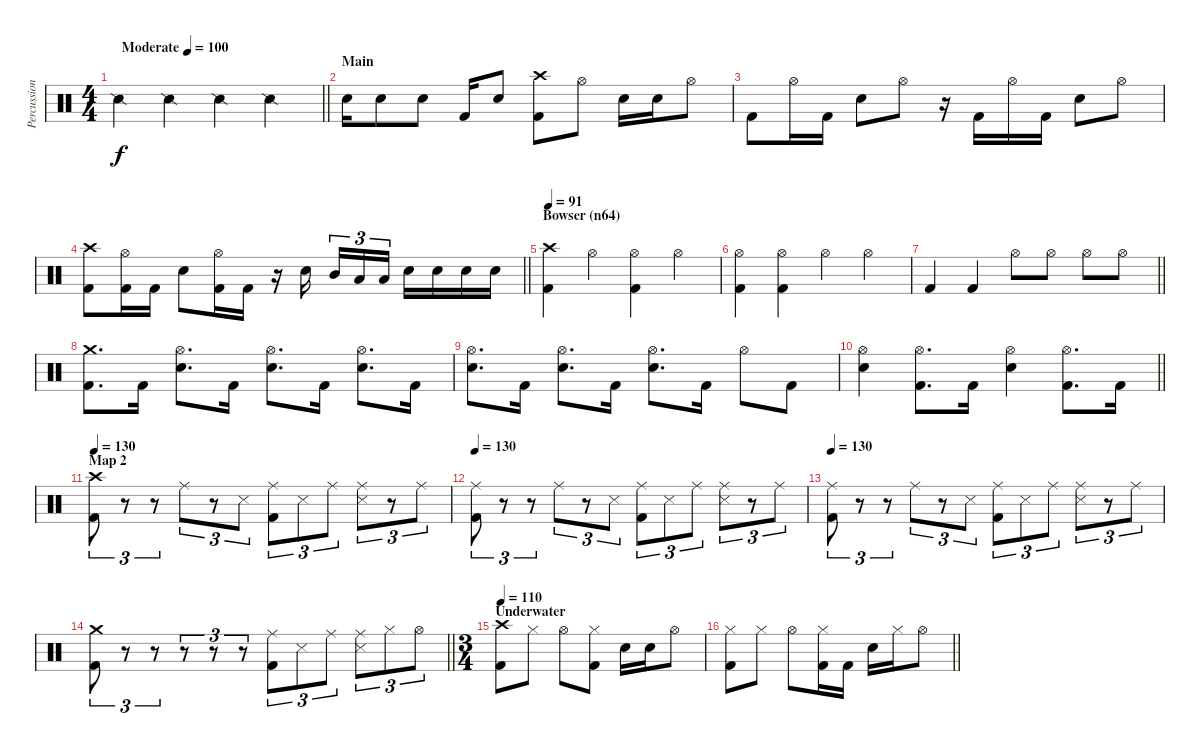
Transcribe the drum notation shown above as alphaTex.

\track ("Percussion" "Percussion") {instrument percussion}
\staff {score}
\articulation defaults
\ts (4 4)
\tempo (100 "Moderate")
\clef neutral
\barLineRight lightlight
\ks c "Snare (side stick) 2".4{dy f} "Snare (side stick) 2".4 "Snare (side stick) 2".4 "Snare (side stick) 2".4
|
\section ("" "Main")
"Electric Snare (hit)".16 "Electric Snare (hit)".8 "Electric Snare (hit)".8 "Kick (hit) 2".16 "Electric Snare (hit)".8 ("Crash high (hit)" "Kick (hit) 2").8 "Hi-Hat (open)".8 "Electric Snare (hit)".16 "Electric Snare (hit)".16 "Hi-Hat (open)".8 |
"Kick (hit) 2".8 "Hi-Hat (open)".16 "Kick (hit) 2".16 "Electric Snare (hit)".8 "Hi-Hat (open)".8 r.16 "Kick (hit) 2".16 "Hi-Hat (open)".16 "Kick (hit) 2".16 "Electric Snare (hit)".8 "Hi-Hat (open)".8 |
\barLineRight lightlight
("Crash high (hit)" "Kick (hit) 2").8 ("Hi-Hat (open)" "Kick (hit) 2").16 "Kick (hit) 2".16 "Electric Snare (hit)".8 ("Hi-Hat (open)" "Kick (hit) 2").16 "Kick (hit) 2".16 r.16 "Electric Snare (hit)".16{beam splitsecondary} "Mid Tom (hit)".16{tu (3 2)} "Low Tom (hit)".16{tu (3 2)} "Low Tom (hit)".16{tu (3 2)} "Electric Snare (hit)".16 "Electric Snare (hit)".16 "Electric Snare (hit)".16 "Electric Snare (hit)".16 |
\section ("" "Bowser (n64)")
\tempo 91
("Crash high (hit)" "Kick (hit) 2").4 "Hi-Hat (open)".4 ("Hi-Hat (open)" "Kick (hit) 2").4 "Hi-Hat (open)".4 |
("Hi-Hat (open)" "Kick (hit) 2").4 ("Hi-Hat (open)" "Kick (hit) 2").4 "Hi-Hat (open)".4 "Hi-Hat (open)".4 |
\barLineRight lightlight "Kick (hit) 2".4 "Kick (hit) 2".4 "Hi-Hat (open)".8 "Hi-Hat (open)".8 "Hi-Hat (open)".8 "Hi-Hat (open)".8
|
("Crash medium (hit)" "Kick (hit) 2").8{d} "Kick (hit) 2".16 ("Hi-Hat (open)" "Snare (hit) 2").8{d} "Kick (hit) 2".16 ("Hi-Hat (open)" "Snare (hit) 2").8{d} "Kick (hit) 2".16 ("Hi-Hat (open)" "Snare (hit) 2").8{d} "Kick (hit) 2".16 |
("Hi-Hat (open)" "Snare (hit) 2").8{d} "Kick (hit) 2".16 ("Hi-Hat (open)" "Snare (hit) 2").8{d} "Kick (hit) 2".16 ("Hi-Hat (open)" "Snare (hit) 2").8{d} "Kick (hit) 2".16 "Hi-Hat (open)".8 "Kick (hit) 2".8 |
\barLineRight lightlight
("Hi-Hat (open)" "Snare (hit) 2").4 ("Hi-Hat (open)" "Kick (hit) 2").8{d} "Kick (hit) 2".16 ("Hi-Hat (open)" "Snare (hit) 2").4 ("Hi-Hat (open)" "Kick (hit) 2").8{d} "Kick (hit) 2".16 |
\section ("" "Map 2")
\tempo 130
("Crash high (hit)" "Kick (hit) 2").8{tu (3 2)} r.8{tu (3 2)} r.8{tu (3 2)} "Ride (middle)".8{tu (3 2)} r.8{tu (3 2)} "Snare (side stick) 3".8{tu (3 2)} ("Ride (middle)" "Kick (hit) 2").8{tu (3 2)} "Snare (side stick) 3".8{tu (3 2)} "Ride (middle)".8{tu (3 2)} ("Ride (middle)" "Snare (side stick) 3").8{tu (3 2)} r.8{tu (3 2)} "Ride (middle)".8{tu (3 2)} |
\tempo 130
("Ride (middle)" "Kick (hit) 2").8{tu (3 2)} r.8{tu (3 2)} r.8{tu (3 2)} "Ride (middle)".8{tu (3 2)} r.8{tu (3 2)} "Snare (side stick) 3".8{tu (3 2)} ("Ride (middle)" "Kick (hit) 2").8{tu (3 2)} "Snare (side stick) 3".8{tu (3 2)} "Ride (middle)".8{tu (3 2)} ("Ride (middle)" "Snare (side stick) 3").8{tu (3 2)} r.8{tu (3 2)} "Ride (middle)".8{tu (3 2)} |
\tempo 130
("Ride (middle)" "Kick (hit) 2").8{tu (3 2)} r.8{tu (3 2)} r.8{tu (3 2)} "Ride (middle)".8{tu (3 2)} r.8{tu (3 2)} "Snare (side stick) 3".8{tu (3 2)} ("Ride (middle)" "Kick (hit) 2").8{tu (3 2)} "Snare (side stick) 3".8{tu (3 2)} "Ride (middle)".8{tu (3 2)} ("Ride (middle)" "Snare (side stick) 3").8{tu (3 2)} r.8{tu (3 2)} "Ride (middle)".8{tu (3 2)} |
\barLineRight lightlight
("Crash medium (hit)" "Kick (hit) 2").8{tu (3 2)} r.8{tu (3 2)} r.8{tu (3 2)} r.8{tu (3 2)} r.8{tu (3 2)} r.8{tu (3 2)} ("Ride (middle)" "Kick (hit) 2").8{tu (3 2)} "Snare (side stick) 3".8{tu (3 2)} "Ride (middle)".8{tu (3 2)} ("Ride (middle)" "Snare (side stick) 3").8{tu (3 2)} "Hi-Hat (closed)".8{tu (3 2)} "Hi-Hat (open)".8{tu (3 2)} |
\ts (3 4)
\section ("" "Underwater")
\tempo 110
("Crash high (hit)" "Kick (hit) 2").8 "Hi-Hat (closed)".8 "Hi-Hat (open)".8 ("Hi-Hat (closed)" "Kick (hit) 2").8 "Electric Snare (hit)".16 "Electric Snare (hit)".16 "Hi-Hat (open)".8 |
\barLineRight lightlight
("Hi-Hat (closed)" "Kick (hit) 2").8 "Hi-Hat (closed)".8 "Hi-Hat (open)".8 ("Hi-Hat (closed)" "Kick (hit) 2").16 "Kick (hit) 2".16 "Electric Snare (hit)".16 "Hi-Hat (closed)".16 "Hi-Hat (open)".8
